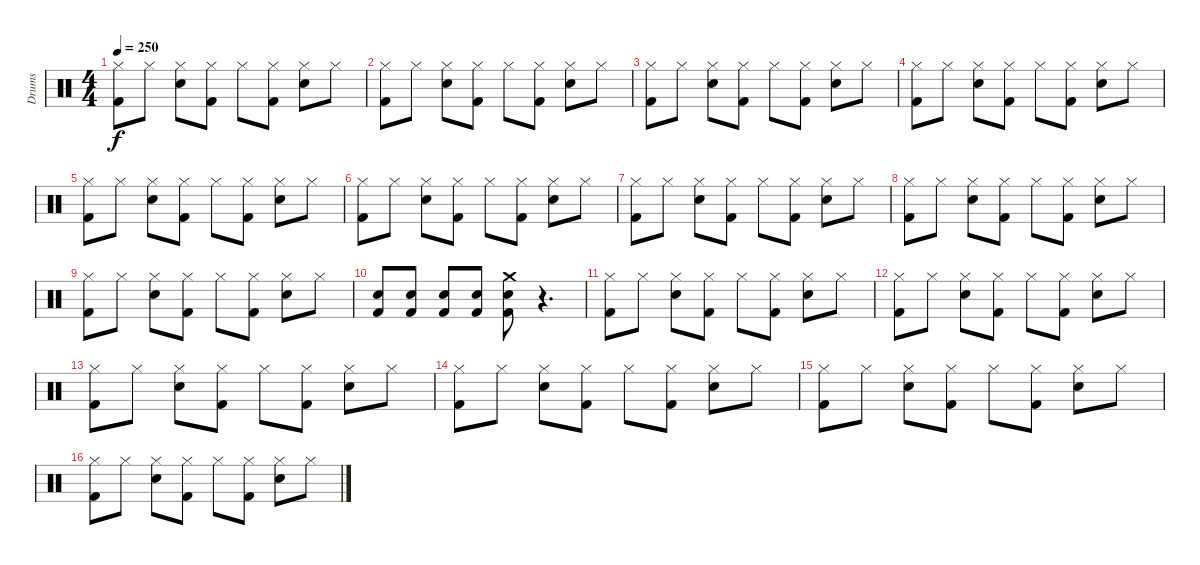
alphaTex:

\track ("Drums" "Drums") {instrument percussion}
\staff {score}
\articulation defaults
\ts (4 4)
\tempo 250
\clef neutral
\ks c
("Kick (hit) 2" "Hi-Hat (closed)").8{dy f} "Hi-Hat (closed)".8 ("Snare (hit) 2" "Hi-Hat (closed)").8 ("Kick (hit) 2" "Hi-Hat (closed)").8 "Hi-Hat (closed)".8 ("Kick (hit) 2" "Hi-Hat (closed)").8 ("Snare (hit) 2" "Hi-Hat (closed)").8 "Hi-Hat (closed)".8 |
("Kick (hit) 2" "Hi-Hat (closed)").8 "Hi-Hat (closed)".8 ("Snare (hit) 2" "Hi-Hat (closed)").8 ("Kick (hit) 2" "Hi-Hat (closed)").8 "Hi-Hat (closed)".8 ("Kick (hit) 2" "Hi-Hat (closed)").8 ("Snare (hit) 2" "Hi-Hat (closed)").8 "Hi-Hat (closed)".8 |
("Kick (hit) 2" "Hi-Hat (closed)").8 "Hi-Hat (closed)".8 ("Snare (hit) 2" "Hi-Hat (closed)").8 ("Kick (hit) 2" "Hi-Hat (closed)").8 "Hi-Hat (closed)".8 ("Kick (hit) 2" "Hi-Hat (closed)").8 ("Snare (hit) 2" "Hi-Hat (closed)").8 "Hi-Hat (closed)".8 |
("Kick (hit) 2" "Hi-Hat (closed)").8 "Hi-Hat (closed)".8 ("Snare (hit) 2" "Hi-Hat (closed)").8 ("Kick (hit) 2" "Hi-Hat (closed)").8 "Hi-Hat (closed)".8 ("Kick (hit) 2" "Hi-Hat (closed)").8 ("Snare (hit) 2" "Hi-Hat (closed)").8 "Hi-Hat (closed)".8 |
("Kick (hit) 2" "Hi-Hat (closed)").8 "Hi-Hat (closed)".8 ("Snare (hit) 2" "Hi-Hat (closed)").8 ("Kick (hit) 2" "Hi-Hat (closed)").8 "Hi-Hat (closed)".8 ("Kick (hit) 2" "Hi-Hat (closed)").8 ("Snare (hit) 2" "Hi-Hat (closed)").8 "Hi-Hat (closed)".8 |
("Kick (hit) 2" "Hi-Hat (closed)").8 "Hi-Hat (closed)".8 ("Snare (hit) 2" "Hi-Hat (closed)").8 ("Kick (hit) 2" "Hi-Hat (closed)").8 "Hi-Hat (closed)".8 ("Kick (hit) 2" "Hi-Hat (closed)").8 ("Snare (hit) 2" "Hi-Hat (closed)").8 "Hi-Hat (closed)".8 |
("Kick (hit) 2" "Hi-Hat (closed)").8 "Hi-Hat (closed)".8 ("Snare (hit) 2" "Hi-Hat (closed)").8 ("Kick (hit) 2" "Hi-Hat (closed)").8 "Hi-Hat (closed)".8 ("Kick (hit) 2" "Hi-Hat (closed)").8 ("Snare (hit) 2" "Hi-Hat (closed)").8 "Hi-Hat (closed)".8 |
("Kick (hit) 2" "Hi-Hat (closed)").8 "Hi-Hat (closed)".8 ("Snare (hit) 2" "Hi-Hat (closed)").8 ("Kick (hit) 2" "Hi-Hat (closed)").8 "Hi-Hat (closed)".8 ("Kick (hit) 2" "Hi-Hat (closed)").8 ("Snare (hit) 2" "Hi-Hat (closed)").8 "Hi-Hat (closed)".8 |
("Kick (hit) 2" "Hi-Hat (closed)").8 "Hi-Hat (closed)".8 ("Snare (hit) 2" "Hi-Hat (closed)").8 ("Kick (hit) 2" "Hi-Hat (closed)").8 "Hi-Hat (closed)".8 ("Kick (hit) 2" "Hi-Hat (closed)").8 ("Snare (hit) 2" "Hi-Hat (closed)").8 "Hi-Hat (closed)".8 |
("Kick (hit) 2" "Snare (hit) 2").8 ("Kick (hit) 2" "Snare (hit) 2").8 ("Kick (hit) 2" "Snare (hit) 2").8 ("Kick (hit) 2" "Snare (hit) 2").8 ("Kick (hit) 2" "Snare (hit) 2" "Crash medium (hit)").8 r.4{d} |
("Kick (hit) 2" "Hi-Hat (closed)").8 "Hi-Hat (closed)".8 ("Snare (hit) 2" "Hi-Hat (closed)").8 ("Kick (hit) 2" "Hi-Hat (closed)").8 "Hi-Hat (closed)".8 ("Kick (hit) 2" "Hi-Hat (closed)").8 ("Snare (hit) 2" "Hi-Hat (closed)").8 "Hi-Hat (closed)".8 |
("Kick (hit) 2" "Hi-Hat (closed)").8 "Hi-Hat (closed)".8 ("Snare (hit) 2" "Hi-Hat (closed)").8 ("Kick (hit) 2" "Hi-Hat (closed)").8 "Hi-Hat (closed)".8 ("Kick (hit) 2" "Hi-Hat (closed)").8 ("Snare (hit) 2" "Hi-Hat (closed)").8 "Hi-Hat (closed)".8 |
("Kick (hit) 2" "Hi-Hat (closed)").8 "Hi-Hat (closed)".8 ("Snare (hit) 2" "Hi-Hat (closed)").8 ("Kick (hit) 2" "Hi-Hat (closed)").8 "Hi-Hat (closed)".8 ("Kick (hit) 2" "Hi-Hat (closed)").8 ("Snare (hit) 2" "Hi-Hat (closed)").8 "Hi-Hat (closed)".8 |
("Kick (hit) 2" "Hi-Hat (closed)").8 "Hi-Hat (closed)".8 ("Snare (hit) 2" "Hi-Hat (closed)").8 ("Kick (hit) 2" "Hi-Hat (closed)").8 "Hi-Hat (closed)".8 ("Kick (hit) 2" "Hi-Hat (closed)").8 ("Snare (hit) 2" "Hi-Hat (closed)").8 "Hi-Hat (closed)".8 |
("Kick (hit) 2" "Hi-Hat (closed)").8 "Hi-Hat (closed)".8 ("Snare (hit) 2" "Hi-Hat (closed)").8 ("Kick (hit) 2" "Hi-Hat (closed)").8 "Hi-Hat (closed)".8 ("Kick (hit) 2" "Hi-Hat (closed)").8 ("Snare (hit) 2" "Hi-Hat (closed)").8 "Hi-Hat (closed)".8 |
("Kick (hit) 2" "Hi-Hat (closed)").8 "Hi-Hat (closed)".8 ("Snare (hit) 2" "Hi-Hat (closed)").8 ("Kick (hit) 2" "Hi-Hat (closed)").8 "Hi-Hat (closed)".8 ("Kick (hit) 2" "Hi-Hat (closed)").8 ("Snare (hit) 2" "Hi-Hat (closed)").8 "Hi-Hat (closed)".8
